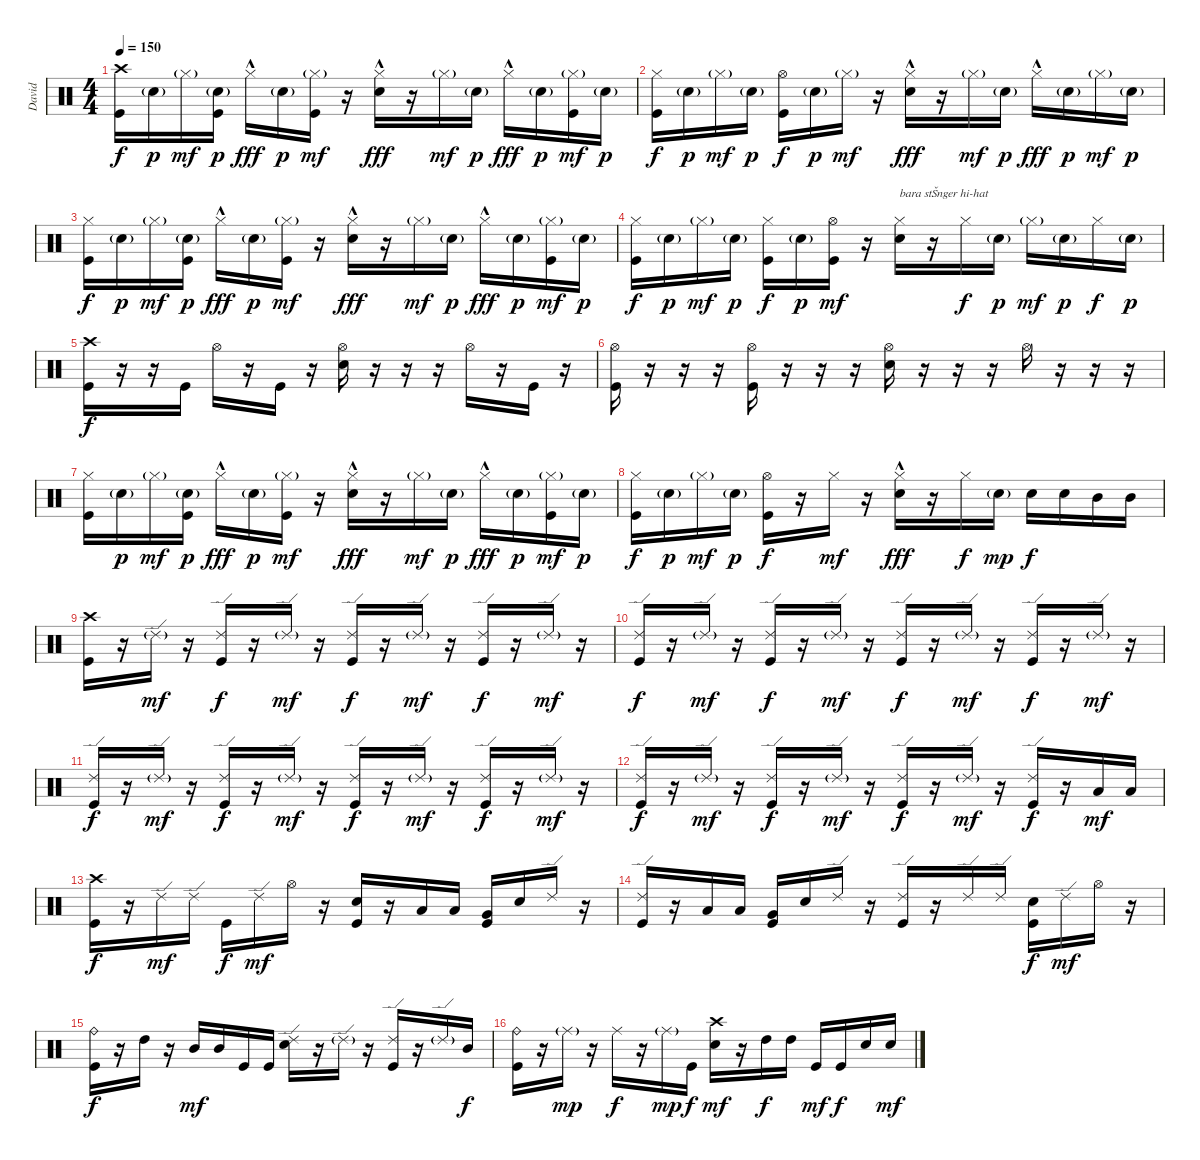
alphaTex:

\track ("David" "David") {instrument percussion}
\staff {score}
\articulation defaults
\ts (4 4)
\tempo 150
\clef neutral
\ks c
("Crash high (hit)" "Kick (hit)").16{dy f} "Electric Snare (hit)"{g}.16{dy p} "Hi-Hat (closed)"{g}.16{dy mf} ("Electric Snare (hit)"{g} "Kick (hit)").16{dy p} "Hi-Hat (closed)"{hac}.16{dy fff} "Electric Snare (hit)"{g}.16{dy p} ("Hi-Hat (closed)"{g} "Kick (hit)").16{dy mf} r.16 ("Hi-Hat (closed)"{hac} "Electric Snare (hit)").16{dy fff} r.16 "Hi-Hat (closed)"{g}.16{dy mf} "Electric Snare (hit)"{g}.16{dy p} "Hi-Hat (closed)"{hac}.16{dy fff} "Electric Snare (hit)"{g}.16{dy p} ("Hi-Hat (closed)"{g} "Kick (hit)").16{dy mf} "Electric Snare (hit)"{g}.16{dy p} |
("Hi-Hat (closed)" "Kick (hit)").16{dy f} "Electric Snare (hit)"{g}.16{dy p} "Hi-Hat (closed)"{g}.16{dy mf} "Electric Snare (hit)"{g}.16{dy p} ("Hi-Hat (open)" "Kick (hit)").16{dy f} "Electric Snare (hit)"{g}.16{dy p} "Hi-Hat (closed)"{g}.16{dy mf} r.16 ("Hi-Hat (closed)"{hac} "Electric Snare (hit)").16{dy fff} r.16 "Hi-Hat (closed)"{g}.16{dy mf} "Electric Snare (hit)"{g}.16{dy p} "Hi-Hat (closed)"{hac}.16{dy fff} "Electric Snare (hit)"{g}.16{dy p} "Hi-Hat (closed)"{g}.16{dy mf} "Electric Snare (hit)"{g}.16{dy p} |
("Hi-Hat (closed)" "Kick (hit)").16{dy f} "Electric Snare (hit)"{g}.16{dy p} "Hi-Hat (closed)"{g}.16{dy mf} ("Electric Snare (hit)"{g} "Kick (hit)").16{dy p} "Hi-Hat (closed)"{hac}.16{dy fff} "Electric Snare (hit)"{g}.16{dy p} ("Hi-Hat (closed)"{g} "Kick (hit)").16{dy mf} r.16 ("Hi-Hat (closed)"{hac} "Electric Snare (hit)").16{dy fff} r.16 "Hi-Hat (closed)"{g}.16{dy mf} "Electric Snare (hit)"{g}.16{dy p} "Hi-Hat (closed)"{hac}.16{dy fff} "Electric Snare (hit)"{g}.16{dy p} ("Hi-Hat (closed)"{g} "Kick (hit)").16{dy mf} "Electric Snare (hit)"{g}.16{dy p} |
("Hi-Hat (closed)" "Kick (hit)").16{dy f} "Electric Snare (hit)"{g}.16{dy p} "Hi-Hat (closed)"{g}.16{dy mf} "Electric Snare (hit)"{g}.16{dy p} ("Hi-Hat (closed)" "Kick (hit)").16{dy f} "Electric Snare (hit)"{g}.16{dy p} ("Hi-Hat (open)" "Kick (hit)").16{dy mf} r.16 ("Hi-Hat (closed)" "Electric Snare (hit)").16{txt "bara stŠnger hi-hat"} r.16 "Hi-Hat (closed)".16{dy f} "Electric Snare (hit)"{g}.16{dy p} "Hi-Hat (closed)"{g}.16{dy mf} "Electric Snare (hit)"{g}.16{dy p} "Hi-Hat (closed)".16{dy f} "Electric Snare (hit)"{g}.16{dy p} |
("Crash high (hit)" "Kick (hit)").16{dy f} r.16 r.16 "Kick (hit)".16 "Hi-Hat (open)".16 r.16 "Kick (hit)".16 r.16 ("Hi-Hat (open)" "Electric Snare (hit)").16 r.16 r.16 r.16 "Hi-Hat (open)".16 r.16 "Kick (hit)".16 r.16 |
("Hi-Hat (open)" "Kick (hit)").16 r.16 r.16 r.16 ("Hi-Hat (open)" "Kick (hit)").16 r.16 r.16 r.16 ("Hi-Hat (open)" "Electric Snare (hit)").16 r.16 r.16 r.16 "Hi-Hat (open)".16 r.16 r.16 r.16 |
("Hi-Hat (closed)" "Kick (hit)").16 "Electric Snare (hit)"{g}.16{dy p} "Hi-Hat (closed)"{g}.16{dy mf} ("Electric Snare (hit)"{g} "Kick (hit)").16{dy p} "Hi-Hat (closed)"{hac}.16{dy fff} "Electric Snare (hit)"{g}.16{dy p} ("Hi-Hat (closed)"{g} "Kick (hit)").16{dy mf} r.16 ("Hi-Hat (closed)"{hac} "Electric Snare (hit)").16{dy fff} r.16 "Hi-Hat (closed)"{g}.16{dy mf} "Electric Snare (hit)"{g}.16{dy p} "Hi-Hat (closed)"{hac}.16{dy fff} "Electric Snare (hit)"{g}.16{dy p} ("Hi-Hat (closed)"{g} "Kick (hit)").16{dy mf} "Electric Snare (hit)"{g}.16{dy p} |
("Hi-Hat (closed)" "Kick (hit)").16{dy f} "Electric Snare (hit)"{g}.16{dy p} "Hi-Hat (closed)"{g}.16{dy mf} "Electric Snare (hit)"{g}.16{dy p} ("Hi-Hat (open)" "Kick (hit)").16{dy f} r.16 "Hi-Hat (closed)".16{dy mf} r.16 ("Hi-Hat (closed)"{hac} "Electric Snare (hit)").16{dy fff} r.16{beam merge} "Hi-Hat (closed)".16{dy f} "Electric Snare (hit)"{g}.16{dy mp} "Electric Snare (hit)".16{dy f} "Electric Snare (hit)".16 "Mid Tom (hit)".16 "Mid Tom (hit)".16 |
("Crash high (hit)" "Kick (hit)").16 r.16 "Ride (edge) 2"{g}.16{dy mf} r.16 ("Ride (edge) 2" "Kick (hit)").16{dy f} r.16 "Ride (edge) 2"{g}.16{dy mf} r.16 ("Ride (edge) 2" "Kick (hit)").16{dy f} r.16 "Ride (edge) 2"{g}.16{dy mf} r.16 ("Ride (edge) 2" "Kick (hit)").16{dy f} r.16 "Ride (edge) 2"{g}.16{dy mf} r.16 |
("Ride (edge) 2" "Kick (hit)").16{dy f} r.16 "Ride (edge) 2"{g}.16{dy mf} r.16 ("Ride (edge) 2" "Kick (hit)").16{dy f} r.16 "Ride (edge) 2"{g}.16{dy mf} r.16 ("Ride (edge) 2" "Kick (hit)").16{dy f} r.16 "Ride (edge) 2"{g}.16{dy mf} r.16 ("Ride (edge) 2" "Kick (hit)").16{dy f} r.16 "Ride (edge) 2"{g}.16{dy mf} r.16 |
("Ride (edge) 2" "Kick (hit)").16{dy f} r.16 "Ride (edge) 2"{g}.16{dy mf} r.16 ("Ride (edge) 2" "Kick (hit)").16{dy f} r.16 "Ride (edge) 2"{g}.16{dy mf} r.16 ("Ride (edge) 2" "Kick (hit)").16{dy f} r.16 "Ride (edge) 2"{g}.16{dy mf} r.16 ("Ride (edge) 2" "Kick (hit)").16{dy f} r.16 "Ride (edge) 2"{g}.16{dy mf} r.16 |
("Ride (edge) 2" "Kick (hit)").16{dy f} r.16 "Ride (edge) 2"{g}.16{dy mf} r.16 ("Ride (edge) 2" "Kick (hit)").16{dy f} r.16 "Ride (edge) 2"{g}.16{dy mf} r.16 ("Ride (edge) 2" "Kick (hit)").16{dy f} r.16 "Ride (edge) 2"{g}.16{dy mf} r.16 ("Ride (edge) 2" "Kick (hit)").16{dy f} r.16 "Low Tom (hit)".16{dy mf} "Low Tom (hit)".16 |
("Crash high (hit)" "Kick (hit)").16{dy f} r.16 "Ride (edge) 2".16{dy mf} "Ride (edge) 2".16 "Kick (hit)".16{dy f} "Ride (edge) 2".16{dy mf} "Hi-Hat (open)".16 r.16 ("Electric Snare (hit)" "Kick (hit)").16 r.16 "Low Tom (hit)".16 "Low Tom (hit)".16 ("Very Low Tom (hit)" "Kick (hit)").16 "Electric Snare (hit)".16{beam merge} "Ride (edge) 2".16 r.16 |
("Ride (edge) 2" "Kick (hit)").16 r.16 "Low Tom (hit)".16 "Low Tom (hit)".16 ("Very Low Tom (hit)" "Kick (hit)").16 "Electric Snare (hit)".16{beam merge} "Ride (edge) 2".16 r.16 ("Ride (edge) 2" "Kick (hit)").16 r.16 "Ride (edge) 2".16 "Ride (edge) 2".16 ("Electric Snare (hit)" "Kick (hit)").16{dy f} "Ride (edge) 2".16{dy mf} "Hi-Hat (open)".16 r.16 |
("Ride (bell)" "Kick (hit)").16{dy f} r.16 "High Tom (hit)".16 r.16 "Mid Tom (hit)".16{dy mf} "Mid Tom (hit)".16 "Kick (hit)".16 "Kick (hit)".16 ("Ride (edge) 2" "Electric Snare (hit)").16 r.16 "Ride (edge) 2"{g}.16 r.16 ("Ride (edge) 2" "Kick (hit)").16 r.16 "Ride (edge) 2"{g}.16 "Mid Tom (hit)".16{dy f} |
("Ride (bell)" "Kick (hit)").16 r.16 "Ride (middle)"{g}.16{dy mp} r.16 "Ride (middle)".16{dy f} r.16 "Ride (middle)"{g}.16{dy mp} "Kick (hit)".16{dy f} ("Crash high (hit)" "Electric Snare (hit)").16{dy mf} r.16 "High Tom (hit)".16{dy f} "High Tom (hit)".16 "Kick (hit)".16{dy mf} "Kick (hit)".16{dy f} "Electric Snare (hit)".16 "Electric Snare (hit)".16{dy mf}
